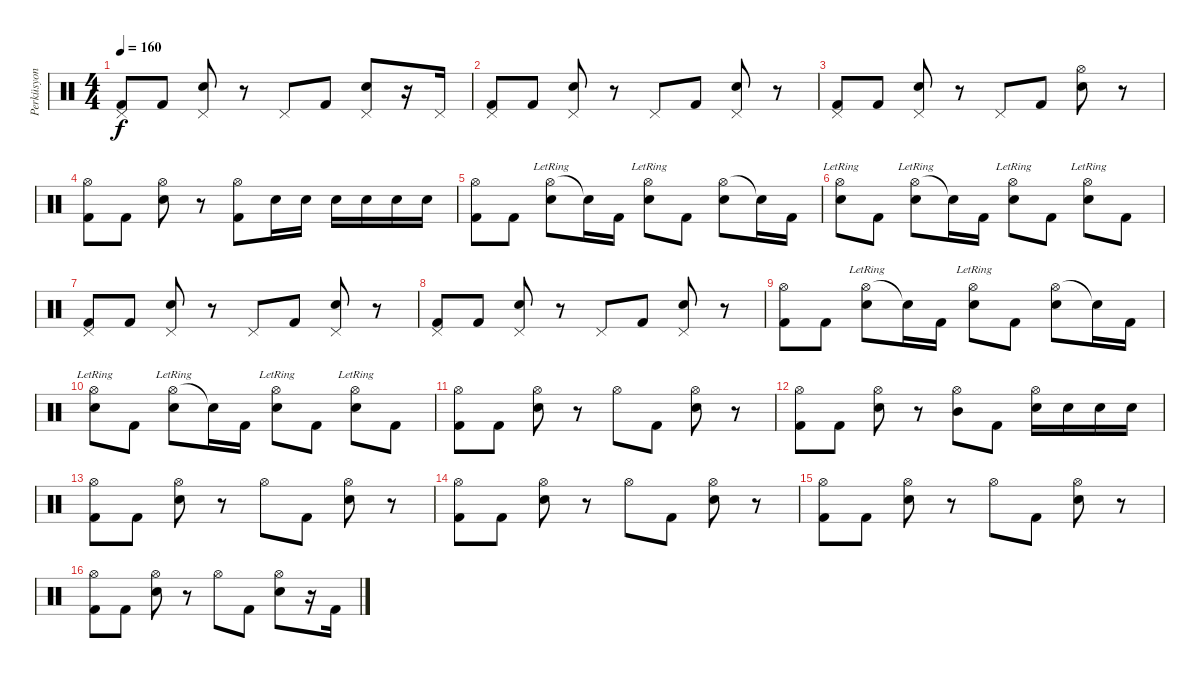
\track ("Perküsyon" "Perküsyon") {instrument percussion}
\staff {score}
\articulation defaults
\ts (4 4)
\tempo 160
\clef neutral
\ks c
("Pedal Hi-Hat (hit)" "Kick (hit) 2").8{dy f} "Kick (hit) 2".8 ("Pedal Hi-Hat (hit)" "Electric Snare (hit)").8 r.8 "Pedal Hi-Hat (hit)".8 "Kick (hit) 2".8 ("Pedal Hi-Hat (hit)" "Electric Snare (hit)").8 r.16 "Pedal Hi-Hat (hit)".16 |
("Pedal Hi-Hat (hit)" "Kick (hit) 2").8 "Kick (hit) 2".8 ("Pedal Hi-Hat (hit)" "Electric Snare (hit)").8 r.8 "Pedal Hi-Hat (hit)".8 "Kick (hit) 2".8 ("Pedal Hi-Hat (hit)" "Electric Snare (hit)").8 r.8 |
("Pedal Hi-Hat (hit)" "Kick (hit) 2").8 "Kick (hit) 2".8 ("Pedal Hi-Hat (hit)" "Electric Snare (hit)").8 r.8 "Pedal Hi-Hat (hit)".8 "Kick (hit) 2".8 ("Hi-Hat (open)" "Electric Snare (hit)").8 r.8 |
("Hi-Hat (open)" "Kick (hit) 2").8 "Kick (hit) 2".8 ("Hi-Hat (open)" "Electric Snare (hit)").8 r.8 ("Hi-Hat (open)" "Kick (hit) 2").8 "Electric Snare (hit)".16 "Electric Snare (hit)".16 "Electric Snare (hit)".16 "Electric Snare (hit)".16 "Electric Snare (hit)".16 "Electric Snare (hit)".16 |
("Hi-Hat (open)" "Kick (hit) 2").8 "Kick (hit) 2".8 ("Hi-Hat (open)" "Electric Snare (hit)"{lr}).8 "Snare (hit)"{t}.16 "Kick (hit) 2".16 ("Hi-Hat (open)" "Electric Snare (hit)"{lr}).8 "Kick (hit) 2".8 ("Hi-Hat (open)" "Electric Snare (hit)").8 "Snare (hit)"{t}.16 "Kick (hit) 2".16 |
("Hi-Hat (open)" "Electric Snare (hit)"{lr}).8 "Kick (hit) 2".8 ("Hi-Hat (open)" "Electric Snare (hit)"{lr}).8 "Snare (hit)"{t}.16 "Kick (hit) 2".16 ("Hi-Hat (open)" "Electric Snare (hit)"{lr}).8 "Kick (hit) 2".8 ("Hi-Hat (open)" "Electric Snare (hit)"{lr}).8 "Kick (hit) 2".8 |
("Pedal Hi-Hat (hit)" "Kick (hit) 2").8 "Kick (hit) 2".8 ("Pedal Hi-Hat (hit)" "Electric Snare (hit)").8 r.8 "Pedal Hi-Hat (hit)".8 "Kick (hit) 2".8 ("Pedal Hi-Hat (hit)" "Electric Snare (hit)").8 r.8 |
("Pedal Hi-Hat (hit)" "Kick (hit) 2").8 "Kick (hit) 2".8 ("Pedal Hi-Hat (hit)" "Electric Snare (hit)").8 r.8 "Pedal Hi-Hat (hit)".8 "Kick (hit) 2".8 ("Pedal Hi-Hat (hit)" "Electric Snare (hit)").8 r.8 |
("Hi-Hat (open)" "Kick (hit) 2").8 "Kick (hit) 2".8 ("Hi-Hat (open)" "Electric Snare (hit)"{lr}).8 "Snare (hit)"{t}.16 "Kick (hit) 2".16 ("Hi-Hat (open)" "Electric Snare (hit)"{lr}).8 "Kick (hit) 2".8 ("Hi-Hat (open)" "Electric Snare (hit)").8 "Snare (hit)"{t}.16 "Kick (hit) 2".16 |
("Hi-Hat (open)" "Electric Snare (hit)"{lr}).8 "Kick (hit) 2".8 ("Hi-Hat (open)" "Electric Snare (hit)"{lr}).8 "Snare (hit)"{t}.16 "Kick (hit) 2".16 ("Hi-Hat (open)" "Electric Snare (hit)"{lr}).8 "Kick (hit) 2".8 ("Hi-Hat (open)" "Electric Snare (hit)"{lr}).8 "Kick (hit) 2".8 |
("Hi-Hat (open)" "Kick (hit) 2").8 "Kick (hit) 2".8 ("Hi-Hat (open)" "Electric Snare (hit)").8 r.8 "Hi-Hat (open)".8 "Kick (hit) 2".8 ("Hi-Hat (open)" "Electric Snare (hit)").8 r.8 |
("Hi-Hat (open)" "Kick (hit) 2").8 "Kick (hit) 2".8 ("Hi-Hat (open)" "Electric Snare (hit)").8 r.8 ("Hi-Hat (open)" "Mid Tom (hit)").8 "Kick (hit) 2".8 ("Hi-Hat (open)" "Electric Snare (hit)").16 "Electric Snare (hit)".16 "Electric Snare (hit)".16 "Electric Snare (hit)".16 |
("Hi-Hat (open)" "Kick (hit) 2").8 "Kick (hit) 2".8 ("Hi-Hat (open)" "Electric Snare (hit)").8 r.8 "Hi-Hat (open)".8 "Kick (hit) 2".8 ("Hi-Hat (open)" "Electric Snare (hit)").8 r.8 |
("Hi-Hat (open)" "Kick (hit) 2").8 "Kick (hit) 2".8 ("Hi-Hat (open)" "Electric Snare (hit)").8 r.8 "Hi-Hat (open)".8 "Kick (hit) 2".8 ("Hi-Hat (open)" "Electric Snare (hit)").8 r.8 |
("Hi-Hat (open)" "Kick (hit) 2").8 "Kick (hit) 2".8 ("Hi-Hat (open)" "Electric Snare (hit)").8 r.8 "Hi-Hat (open)".8 "Kick (hit) 2".8 ("Hi-Hat (open)" "Electric Snare (hit)").8 r.8 |
("Hi-Hat (open)" "Kick (hit) 2").8 "Kick (hit) 2".8 ("Hi-Hat (open)" "Electric Snare (hit)").8 r.8 "Hi-Hat (open)".8 "Kick (hit) 2".8 ("Hi-Hat (open)" "Electric Snare (hit)").8 r.16 "Kick (hit) 2".16
